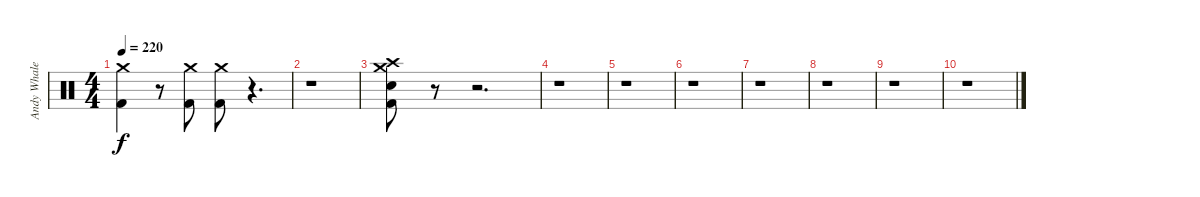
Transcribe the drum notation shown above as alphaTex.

\track ("Andy Whale" "Andy Whale") {instrument percussion}
\staff {score}
\articulation defaults
\ts (4 4)
\tempo 220
\clef neutral
\ks c
("Crash medium (hit)" "Kick (hit) 2").4{dy f} r.8 ("Crash medium (hit)" "Kick (hit) 2").8 ("Crash medium (hit)" "Kick (hit) 2").8 r.4{d} |
r.1 |
("Crash medium (hit)" "Crash high (hit)" "Electric Snare (hit)" "Kick (hit) 2").8 r.8 r.2{d} |
r.1 |
r.1 |
r.1 |
r.1 |
r.1 |
r.1 |
r.1
